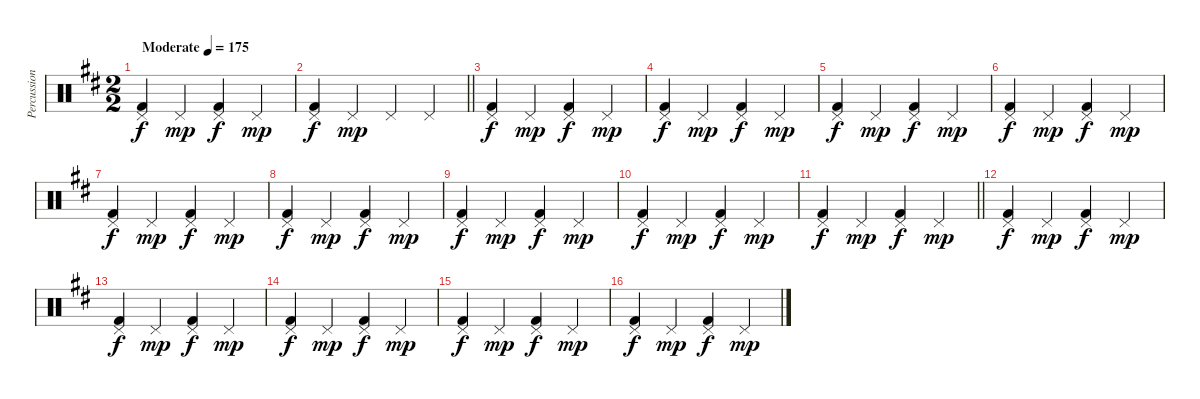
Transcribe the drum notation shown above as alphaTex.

\track ("Percussion" "Percussion") {instrument percussion}
\staff {score}
\articulation defaults
\ts (2 2)
\tempo (175 "Moderate")
\clef neutral
\ks d
("Pedal Hi-Hat (hit)" "Kick (hit) 2").4{dy f} "Pedal Hi-Hat (hit)".4{dy mp} ("Pedal Hi-Hat (hit)" "Kick (hit) 2").4{dy f} "Pedal Hi-Hat (hit)".4{dy mp} |
\barLineRight lightlight
("Pedal Hi-Hat (hit)" "Kick (hit) 2").4{dy f} "Pedal Hi-Hat (hit)".4{dy mp} "Pedal Hi-Hat (hit)".4 "Pedal Hi-Hat (hit)".4 |
("Pedal Hi-Hat (hit)" "Kick (hit) 2").4{dy f} "Pedal Hi-Hat (hit)".4{dy mp} ("Pedal Hi-Hat (hit)" "Kick (hit) 2").4{dy f} "Pedal Hi-Hat (hit)".4{dy mp} |
("Pedal Hi-Hat (hit)" "Kick (hit) 2").4{dy f} "Pedal Hi-Hat (hit)".4{dy mp} ("Pedal Hi-Hat (hit)" "Kick (hit) 2").4{dy f} "Pedal Hi-Hat (hit)".4{dy mp} |
("Pedal Hi-Hat (hit)" "Kick (hit) 2").4{dy f} "Pedal Hi-Hat (hit)".4{dy mp} ("Pedal Hi-Hat (hit)" "Kick (hit) 2").4{dy f} "Pedal Hi-Hat (hit)".4{dy mp} |
("Pedal Hi-Hat (hit)" "Kick (hit) 2").4{dy f} "Pedal Hi-Hat (hit)".4{dy mp} ("Pedal Hi-Hat (hit)" "Kick (hit) 2").4{dy f} "Pedal Hi-Hat (hit)".4{dy mp} |
("Pedal Hi-Hat (hit)" "Kick (hit) 2").4{dy f} "Pedal Hi-Hat (hit)".4{dy mp} ("Pedal Hi-Hat (hit)" "Kick (hit) 2").4{dy f} "Pedal Hi-Hat (hit)".4{dy mp} |
("Pedal Hi-Hat (hit)" "Kick (hit) 2").4{dy f} "Pedal Hi-Hat (hit)".4{dy mp} ("Pedal Hi-Hat (hit)" "Kick (hit) 2").4{dy f} "Pedal Hi-Hat (hit)".4{dy mp} |
("Pedal Hi-Hat (hit)" "Kick (hit) 2").4{dy f} "Pedal Hi-Hat (hit)".4{dy mp} ("Pedal Hi-Hat (hit)" "Kick (hit) 2").4{dy f} "Pedal Hi-Hat (hit)".4{dy mp} |
("Pedal Hi-Hat (hit)" "Kick (hit) 2").4{dy f} "Pedal Hi-Hat (hit)".4{dy mp} ("Pedal Hi-Hat (hit)" "Kick (hit) 2").4{dy f} "Pedal Hi-Hat (hit)".4{dy mp} |
\barLineRight lightlight
("Pedal Hi-Hat (hit)" "Kick (hit) 2").4{dy f} "Pedal Hi-Hat (hit)".4{dy mp} ("Pedal Hi-Hat (hit)" "Kick (hit) 2").4{dy f} "Pedal Hi-Hat (hit)".4{dy mp} |
("Pedal Hi-Hat (hit)" "Kick (hit) 2").4{dy f} "Pedal Hi-Hat (hit)".4{dy mp} ("Pedal Hi-Hat (hit)" "Kick (hit) 2").4{dy f} "Pedal Hi-Hat (hit)".4{dy mp} |
("Pedal Hi-Hat (hit)" "Kick (hit) 2").4{dy f} "Pedal Hi-Hat (hit)".4{dy mp} ("Pedal Hi-Hat (hit)" "Kick (hit) 2").4{dy f} "Pedal Hi-Hat (hit)".4{dy mp} |
("Pedal Hi-Hat (hit)" "Kick (hit) 2").4{dy f} "Pedal Hi-Hat (hit)".4{dy mp} ("Pedal Hi-Hat (hit)" "Kick (hit) 2").4{dy f} "Pedal Hi-Hat (hit)".4{dy mp} |
("Pedal Hi-Hat (hit)" "Kick (hit) 2").4{dy f} "Pedal Hi-Hat (hit)".4{dy mp} ("Pedal Hi-Hat (hit)" "Kick (hit) 2").4{dy f} "Pedal Hi-Hat (hit)".4{dy mp} |
("Pedal Hi-Hat (hit)" "Kick (hit) 2").4{dy f} "Pedal Hi-Hat (hit)".4{dy mp} ("Pedal Hi-Hat (hit)" "Kick (hit) 2").4{dy f} "Pedal Hi-Hat (hit)".4{dy mp}
